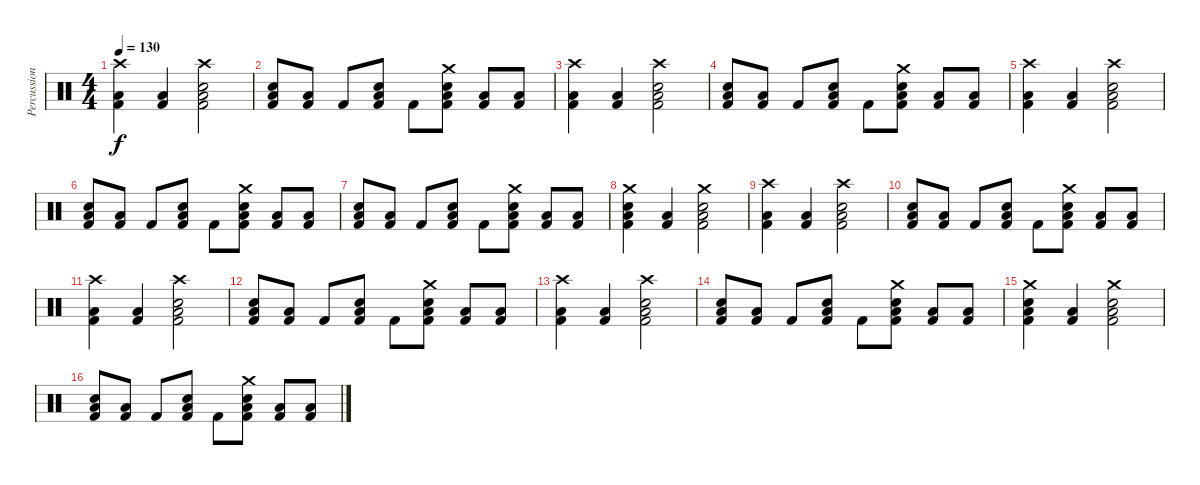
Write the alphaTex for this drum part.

\track ("Percussion" "Percussion") {instrument percussion}
\staff {score}
\articulation defaults
\ts (4 4)
\tempo 130
\clef neutral
\ks c
("Crash high (hit)" "Low Tom (hit)" "Kick (hit) 2").4{dy f} ("Low Tom (hit)" "Kick (hit) 2").4 ("Crash high (hit)" "Electric Snare (hit)" "Low Tom (hit)" "Kick (hit) 2").2 |
("Electric Snare (hit)" "Low Tom (hit)" "Kick (hit) 2").8 ("Low Tom (hit)" "Kick (hit) 2").8 "Kick (hit) 2".8 ("Electric Snare (hit)" "Low Tom (hit)" "Kick (hit) 2").8 "Kick (hit) 2".8 ("Crash medium (hit)" "Electric Snare (hit)" "Low Tom (hit)" "Kick (hit) 2").8 ("Low Tom (hit)" "Kick (hit) 2").8 ("Low Tom (hit)" "Kick (hit) 2").8 |
("Crash high (hit)" "Low Tom (hit)" "Kick (hit) 2").4 ("Low Tom (hit)" "Kick (hit) 2").4 ("Crash high (hit)" "Electric Snare (hit)" "Low Tom (hit)" "Kick (hit) 2").2 |
("Electric Snare (hit)" "Low Tom (hit)" "Kick (hit) 2").8 ("Low Tom (hit)" "Kick (hit) 2").8 "Kick (hit) 2".8 ("Electric Snare (hit)" "Low Tom (hit)" "Kick (hit) 2").8 "Kick (hit) 2".8 ("Crash medium (hit)" "Electric Snare (hit)" "Low Tom (hit)" "Kick (hit) 2").8 ("Low Tom (hit)" "Kick (hit) 2").8 ("Low Tom (hit)" "Kick (hit) 2").8 |
("Crash high (hit)" "Low Tom (hit)" "Kick (hit) 2").4 ("Low Tom (hit)" "Kick (hit) 2").4 ("Crash high (hit)" "Electric Snare (hit)" "Low Tom (hit)" "Kick (hit) 2").2 |
("Electric Snare (hit)" "Low Tom (hit)" "Kick (hit) 2").8 ("Low Tom (hit)" "Kick (hit) 2").8 "Kick (hit) 2".8 ("Electric Snare (hit)" "Low Tom (hit)" "Kick (hit) 2").8 "Kick (hit) 2".8 ("Crash medium (hit)" "Electric Snare (hit)" "Low Tom (hit)" "Kick (hit) 2").8 ("Low Tom (hit)" "Kick (hit) 2").8 ("Low Tom (hit)" "Kick (hit) 2").8 |
("Electric Snare (hit)" "Low Tom (hit)" "Kick (hit) 2").8 ("Low Tom (hit)" "Kick (hit) 2").8 "Kick (hit) 2".8 ("Electric Snare (hit)" "Low Tom (hit)" "Kick (hit) 2").8 "Kick (hit) 2".8 ("Crash medium (hit)" "Electric Snare (hit)" "Low Tom (hit)" "Kick (hit) 2").8 ("Low Tom (hit)" "Kick (hit) 2").8 ("Low Tom (hit)" "Kick (hit) 2").8 |
("Crash medium (hit)" "Electric Snare (hit)" "Low Tom (hit)" "Kick (hit) 2").4 ("Low Tom (hit)" "Kick (hit) 2").4 ("Crash medium (hit)" "Electric Snare (hit)" "Low Tom (hit)" "Kick (hit) 2").2 |
("Crash high (hit)" "Low Tom (hit)" "Kick (hit) 2").4 ("Low Tom (hit)" "Kick (hit) 2").4 ("Crash high (hit)" "Electric Snare (hit)" "Low Tom (hit)" "Kick (hit) 2").2 |
("Electric Snare (hit)" "Low Tom (hit)" "Kick (hit) 2").8 ("Low Tom (hit)" "Kick (hit) 2").8 "Kick (hit) 2".8 ("Electric Snare (hit)" "Low Tom (hit)" "Kick (hit) 2").8 "Kick (hit) 2".8 ("Crash medium (hit)" "Electric Snare (hit)" "Low Tom (hit)" "Kick (hit) 2").8 ("Low Tom (hit)" "Kick (hit) 2").8 ("Low Tom (hit)" "Kick (hit) 2").8 |
("Crash high (hit)" "Low Tom (hit)" "Kick (hit) 2").4 ("Low Tom (hit)" "Kick (hit) 2").4 ("Crash high (hit)" "Electric Snare (hit)" "Low Tom (hit)" "Kick (hit) 2").2 |
("Electric Snare (hit)" "Low Tom (hit)" "Kick (hit) 2").8 ("Low Tom (hit)" "Kick (hit) 2").8 "Kick (hit) 2".8 ("Electric Snare (hit)" "Low Tom (hit)" "Kick (hit) 2").8 "Kick (hit) 2".8 ("Crash medium (hit)" "Electric Snare (hit)" "Low Tom (hit)" "Kick (hit) 2").8 ("Low Tom (hit)" "Kick (hit) 2").8 ("Low Tom (hit)" "Kick (hit) 2").8 |
("Crash high (hit)" "Low Tom (hit)" "Kick (hit) 2").4 ("Low Tom (hit)" "Kick (hit) 2").4 ("Crash high (hit)" "Electric Snare (hit)" "Low Tom (hit)" "Kick (hit) 2").2 |
("Electric Snare (hit)" "Low Tom (hit)" "Kick (hit) 2").8 ("Low Tom (hit)" "Kick (hit) 2").8 "Kick (hit) 2".8 ("Electric Snare (hit)" "Low Tom (hit)" "Kick (hit) 2").8 "Kick (hit) 2".8 ("Crash medium (hit)" "Electric Snare (hit)" "Low Tom (hit)" "Kick (hit) 2").8 ("Low Tom (hit)" "Kick (hit) 2").8 ("Low Tom (hit)" "Kick (hit) 2").8 |
("Crash medium (hit)" "Electric Snare (hit)" "Low Tom (hit)" "Kick (hit) 2").4 ("Low Tom (hit)" "Kick (hit) 2").4 ("Crash medium (hit)" "Electric Snare (hit)" "Low Tom (hit)" "Kick (hit) 2").2 |
("Electric Snare (hit)" "Low Tom (hit)" "Kick (hit) 2").8 ("Low Tom (hit)" "Kick (hit) 2").8 "Kick (hit) 2".8 ("Electric Snare (hit)" "Low Tom (hit)" "Kick (hit) 2").8 "Kick (hit) 2".8 ("Crash medium (hit)" "Electric Snare (hit)" "Low Tom (hit)" "Kick (hit) 2").8 ("Low Tom (hit)" "Kick (hit) 2").8 ("Low Tom (hit)" "Kick (hit) 2").8
